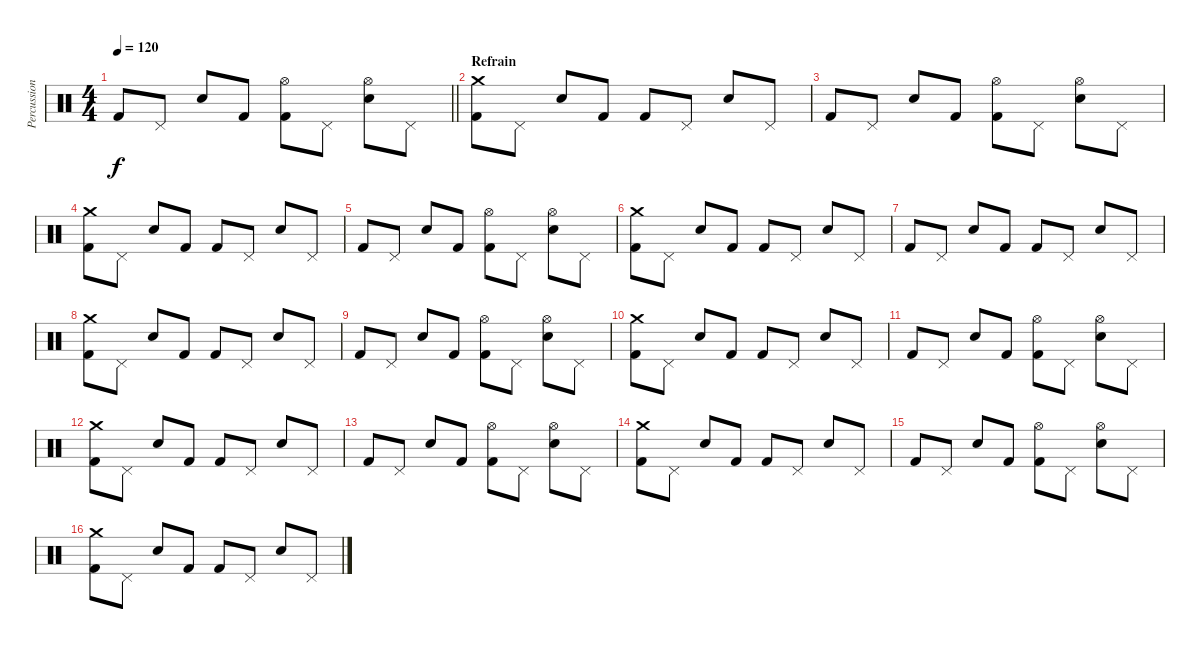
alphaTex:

\track ("Percussions" "Percussion") {instrument percussion}
\staff {score}
\articulation defaults
\ts (4 4)
\tempo 120
\clef neutral
\barLineRight lightlight
\ks c "Kick (hit) 2".8{dy f} "Pedal Hi-Hat (hit)".8 "Snare (hit) 2".8 "Kick (hit) 2".8
("Hi-Hat (open)" "Kick (hit) 2").8 "Pedal Hi-Hat (hit)".8 ("Hi-Hat (open)" "Snare (hit) 2").8 "Pedal Hi-Hat (hit)".8 |
\section ("" "Refrain")
("Crash medium (hit)" "Kick (hit) 2").8 "Pedal Hi-Hat (hit)".8 "Snare (hit) 2".8 "Kick (hit) 2".8 "Kick (hit) 2".8 "Pedal Hi-Hat (hit)".8 "Snare (hit) 2".8 "Pedal Hi-Hat (hit)".8 |
"Kick (hit) 2".8 "Pedal Hi-Hat (hit)".8 "Snare (hit) 2".8 "Kick (hit) 2".8 ("Hi-Hat (open)" "Kick (hit) 2").8 "Pedal Hi-Hat (hit)".8 ("Hi-Hat (open)" "Snare (hit) 2").8 "Pedal Hi-Hat (hit)".8 |
("Crash medium (hit)" "Kick (hit) 2").8 "Pedal Hi-Hat (hit)".8 "Snare (hit) 2".8 "Kick (hit) 2".8 "Kick (hit) 2".8 "Pedal Hi-Hat (hit)".8 "Snare (hit) 2".8 "Pedal Hi-Hat (hit)".8 |
"Kick (hit) 2".8 "Pedal Hi-Hat (hit)".8 "Snare (hit) 2".8 "Kick (hit) 2".8 ("Hi-Hat (open)" "Kick (hit) 2").8 "Pedal Hi-Hat (hit)".8 ("Hi-Hat (open)" "Snare (hit) 2").8 "Pedal Hi-Hat (hit)".8 |
("Crash medium (hit)" "Kick (hit) 2").8 "Pedal Hi-Hat (hit)".8 "Snare (hit) 2".8 "Kick (hit) 2".8 "Kick (hit) 2".8 "Pedal Hi-Hat (hit)".8 "Snare (hit) 2".8 "Pedal Hi-Hat (hit)".8 |
"Kick (hit) 2".8 "Pedal Hi-Hat (hit)".8 "Snare (hit) 2".8 "Kick (hit) 2".8 "Kick (hit) 2".8 "Pedal Hi-Hat (hit)".8 "Snare (hit) 2".8 "Pedal Hi-Hat (hit)".8 |
("Crash medium (hit)" "Kick (hit) 2").8 "Pedal Hi-Hat (hit)".8 "Snare (hit) 2".8 "Kick (hit) 2".8 "Kick (hit) 2".8 "Pedal Hi-Hat (hit)".8 "Snare (hit) 2".8 "Pedal Hi-Hat (hit)".8 |
"Kick (hit) 2".8 "Pedal Hi-Hat (hit)".8 "Snare (hit) 2".8 "Kick (hit) 2".8 ("Hi-Hat (open)" "Kick (hit) 2").8 "Pedal Hi-Hat (hit)".8 ("Hi-Hat (open)" "Snare (hit) 2").8 "Pedal Hi-Hat (hit)".8 |
("Crash medium (hit)" "Kick (hit) 2").8 "Pedal Hi-Hat (hit)".8 "Snare (hit) 2".8 "Kick (hit) 2".8 "Kick (hit) 2".8 "Pedal Hi-Hat (hit)".8 "Snare (hit) 2".8 "Pedal Hi-Hat (hit)".8 |
"Kick (hit) 2".8 "Pedal Hi-Hat (hit)".8 "Snare (hit) 2".8 "Kick (hit) 2".8 ("Hi-Hat (open)" "Kick (hit) 2").8 "Pedal Hi-Hat (hit)".8 ("Hi-Hat (open)" "Snare (hit) 2").8 "Pedal Hi-Hat (hit)".8 |
("Crash medium (hit)" "Kick (hit) 2").8 "Pedal Hi-Hat (hit)".8 "Snare (hit) 2".8 "Kick (hit) 2".8 "Kick (hit) 2".8 "Pedal Hi-Hat (hit)".8 "Snare (hit) 2".8 "Pedal Hi-Hat (hit)".8 |
"Kick (hit) 2".8 "Pedal Hi-Hat (hit)".8 "Snare (hit) 2".8 "Kick (hit) 2".8 ("Hi-Hat (open)" "Kick (hit) 2").8 "Pedal Hi-Hat (hit)".8 ("Hi-Hat (open)" "Snare (hit) 2").8 "Pedal Hi-Hat (hit)".8 |
("Crash medium (hit)" "Kick (hit) 2").8 "Pedal Hi-Hat (hit)".8 "Snare (hit) 2".8 "Kick (hit) 2".8 "Kick (hit) 2".8 "Pedal Hi-Hat (hit)".8 "Snare (hit) 2".8 "Pedal Hi-Hat (hit)".8 |
"Kick (hit) 2".8 "Pedal Hi-Hat (hit)".8 "Snare (hit) 2".8 "Kick (hit) 2".8 ("Hi-Hat (open)" "Kick (hit) 2").8 "Pedal Hi-Hat (hit)".8 ("Hi-Hat (open)" "Snare (hit) 2").8 "Pedal Hi-Hat (hit)".8 |
("Crash medium (hit)" "Kick (hit) 2").8 "Pedal Hi-Hat (hit)".8 "Snare (hit) 2".8 "Kick (hit) 2".8 "Kick (hit) 2".8 "Pedal Hi-Hat (hit)".8 "Snare (hit) 2".8 "Pedal Hi-Hat (hit)".8
